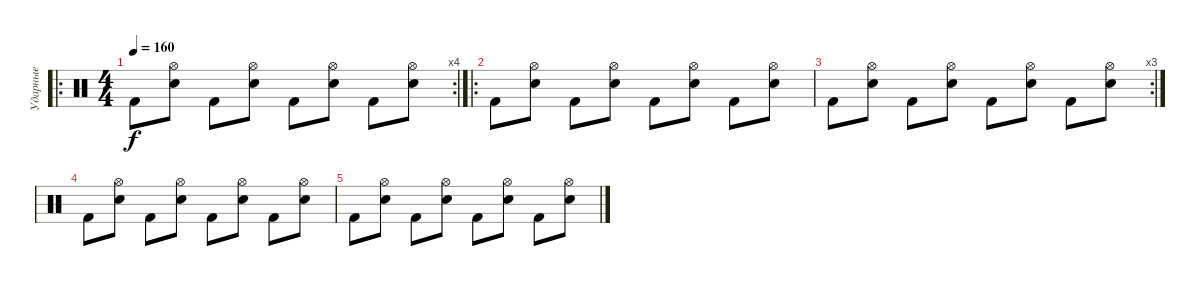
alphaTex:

\track ("Ударные" "Ударные") {instrument percussion}
\staff {score}
\articulation defaults
\ro
\rc 4
\ts (4 4)
\tempo 160
\clef neutral
\ks c "Kick (hit) 2".8{dy f}
("Hi-Hat (open)" "Snare (hit) 2").8 "Kick (hit) 2".8 ("Hi-Hat (open)" "Snare (hit) 2").8 "Kick (hit) 2".8 ("Hi-Hat (open)" "Snare (hit) 2").8 "Kick (hit) 2".8 ("Hi-Hat (open)" "Snare (hit) 2").8 |
\ro "Kick (hit) 2".8
("Hi-Hat (open)" "Snare (hit) 2").8 "Kick (hit) 2".8 ("Hi-Hat (open)" "Snare (hit) 2").8 "Kick (hit) 2".8 ("Hi-Hat (open)" "Snare (hit) 2").8 "Kick (hit) 2".8 ("Hi-Hat (open)" "Snare (hit) 2").8 |
\rc 3 "Kick (hit) 2".8
("Hi-Hat (open)" "Snare (hit) 2").8 "Kick (hit) 2".8 ("Hi-Hat (open)" "Snare (hit) 2").8 "Kick (hit) 2".8 ("Hi-Hat (open)" "Snare (hit) 2").8 "Kick (hit) 2".8 ("Hi-Hat (open)" "Snare (hit) 2").8 |
"Kick (hit) 2".8 ("Hi-Hat (open)" "Snare (hit) 2").8 "Kick (hit) 2".8 ("Hi-Hat (open)" "Snare (hit) 2").8 "Kick (hit) 2".8 ("Hi-Hat (open)" "Snare (hit) 2").8 "Kick (hit) 2".8 ("Hi-Hat (open)" "Snare (hit) 2").8 |
"Kick (hit) 2".8 ("Hi-Hat (open)" "Snare (hit) 2").8 "Kick (hit) 2".8 ("Hi-Hat (open)" "Snare (hit) 2").8 "Kick (hit) 2".8 ("Hi-Hat (open)" "Snare (hit) 2").8 "Kick (hit) 2".8 ("Hi-Hat (open)" "Snare (hit) 2").8
